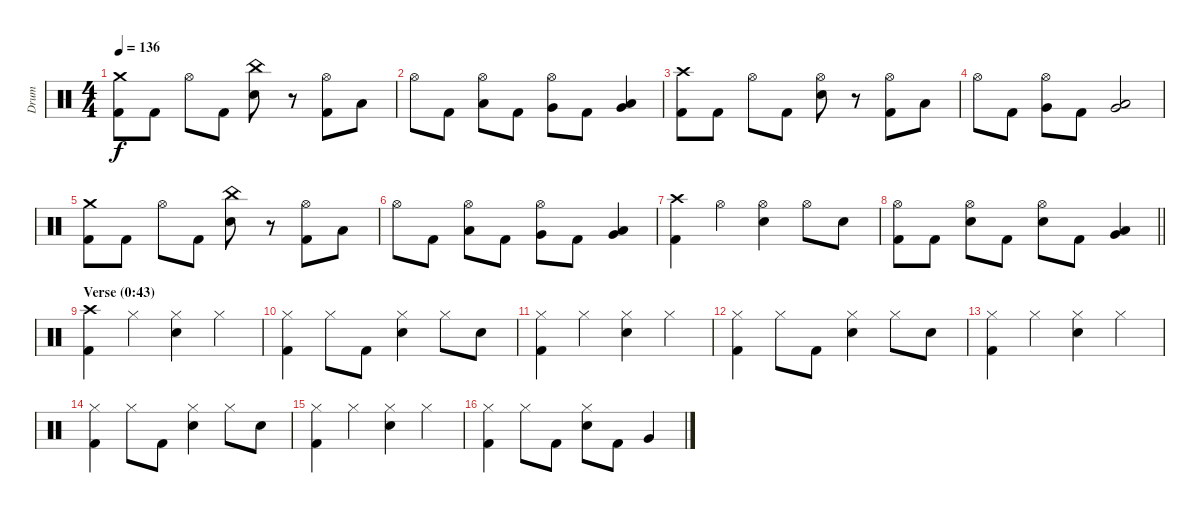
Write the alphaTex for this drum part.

\track ("Drum" "Drum") {instrument percussion}
\staff {score}
\articulation defaults
\ts (4 4)
\tempo 136
\clef neutral
\ks c
("Crash medium (hit)" "Kick (hit) 2").8{dy f} "Kick (hit) 2".8 "Hi-Hat (open)".8 "Kick (hit) 2".8 ("China (hit)" "Electric Snare (hit)").8 r.8 ("Hi-Hat (open)" "Kick (hit) 2").8 "Low Tom (hit)".8 |
"Hi-Hat (open)".8 "Kick (hit) 2".8 ("Hi-Hat (open)" "Low Tom (hit)").8 "Kick (hit) 2".8 ("Hi-Hat (open)" "Very Low Tom (hit)").8 "Kick (hit) 2".8 ("Very Low Tom (hit)" "Low Floor Tom (hit)").4 |
("Crash high (hit)" "Kick (hit) 2").8 "Kick (hit) 2".8 "Hi-Hat (open)".8 "Kick (hit) 2".8 ("Hi-Hat (open)" "Electric Snare (hit)").8 r.8 ("Hi-Hat (open)" "Kick (hit) 2").8 "Low Tom (hit)".8 |
"Hi-Hat (open)".8 "Kick (hit) 2".8 ("Hi-Hat (open)" "Very Low Tom (hit)").8 "Kick (hit) 2".8 ("Very Low Tom (hit)" "Low Floor Tom (hit)").2 |
("Crash medium (hit)" "Kick (hit) 2").8 "Kick (hit) 2".8 "Hi-Hat (open)".8 "Kick (hit) 2".8 ("China (hit)" "Electric Snare (hit)").8 r.8 ("Hi-Hat (open)" "Kick (hit) 2").8 "Low Tom (hit)".8 |
"Hi-Hat (open)".8 "Kick (hit) 2".8 ("Hi-Hat (open)" "Low Tom (hit)").8 "Kick (hit) 2".8 ("Hi-Hat (open)" "Very Low Tom (hit)").8 "Kick (hit) 2".8 ("Very Low Tom (hit)" "Low Floor Tom (hit)").4 |
("Crash high (hit)" "Kick (hit) 2").4 "Hi-Hat (open)".4 ("Hi-Hat (open)" "Electric Snare (hit)").4 "Hi-Hat (open)".8 "Electric Snare (hit)".8 |
\barLineRight lightlight
("Hi-Hat (open)" "Kick (hit) 2").8 "Kick (hit) 2".8 ("Hi-Hat (open)" "Electric Snare (hit)").8 "Kick (hit) 2".8 ("Hi-Hat (open)" "Electric Snare (hit)").8 "Kick (hit) 2".8 ("Very Low Tom (hit)" "Low Floor Tom (hit)").4 |
\section ("" "Verse (0:43)")
("Crash high (hit)" "Kick (hit) 2").4 "Hi-Hat (closed)".4 ("Hi-Hat (closed)" "Snare (hit) 2").4 "Hi-Hat (closed)".4 |
("Hi-Hat (closed)" "Kick (hit) 2").4 "Hi-Hat (closed)".8 "Kick (hit) 2".8 ("Hi-Hat (closed)" "Snare (hit) 2").4 "Hi-Hat (closed)".8 "Snare (hit) 2".8 |
("Hi-Hat (closed)" "Kick (hit) 2").4 "Hi-Hat (closed)".4 ("Hi-Hat (closed)" "Snare (hit) 2").4 "Hi-Hat (closed)".4 |
("Hi-Hat (closed)" "Kick (hit) 2").4 "Hi-Hat (closed)".8 "Kick (hit) 2".8 ("Hi-Hat (closed)" "Snare (hit) 2").4 "Hi-Hat (closed)".8 "Snare (hit) 2".8 |
("Hi-Hat (closed)" "Kick (hit) 2").4 "Hi-Hat (closed)".4 ("Hi-Hat (closed)" "Snare (hit) 2").4 "Hi-Hat (closed)".4 |
("Hi-Hat (closed)" "Kick (hit) 2").4 "Hi-Hat (closed)".8 "Kick (hit) 2".8 ("Hi-Hat (closed)" "Snare (hit) 2").4 "Hi-Hat (closed)".8 "Snare (hit) 2".8 |
("Hi-Hat (closed)" "Kick (hit) 2").4 "Hi-Hat (closed)".4 ("Hi-Hat (closed)" "Snare (hit) 2").4 "Hi-Hat (closed)".4 |
("Hi-Hat (closed)" "Kick (hit) 2").4 "Hi-Hat (closed)".8 "Kick (hit) 2".8 ("Hi-Hat (closed)" "Snare (hit) 2").8 "Kick (hit) 2".8 "Very Low Tom (hit)".4
